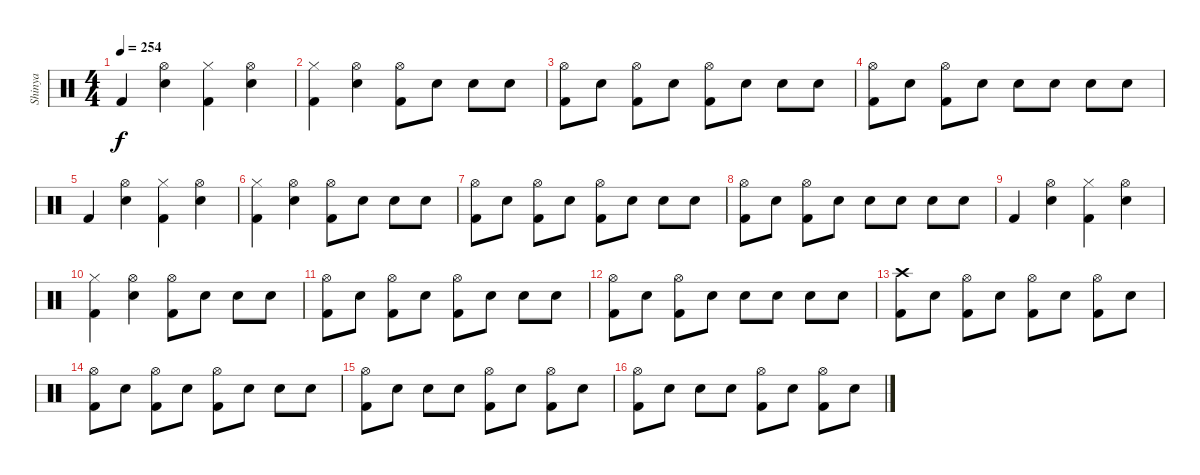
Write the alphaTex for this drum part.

\track ("Shinya" "Shinya") {instrument percussion}
\staff {score}
\articulation defaults
\ts (4 4)
\tempo 254
\clef neutral
\ks c "Kick (hit) 2".4{dy f}
("Hi-Hat (open)" "Electric Snare (hit)").4 ("Kick (hit) 2" "Hi-Hat (closed)").4 ("Hi-Hat (open)" "Electric Snare (hit)").4 |
("Kick (hit) 2" "Hi-Hat (closed)").4 ("Electric Snare (hit)" "Hi-Hat (open)").4 ("Kick (hit) 2" "Hi-Hat (open)").8 "Electric Snare (hit)".8 "Electric Snare (hit)".8 "Electric Snare (hit)".8 |
("Kick (hit) 2" "Hi-Hat (open)").8 "Electric Snare (hit)".8 ("Kick (hit) 2" "Hi-Hat (open)").8 "Electric Snare (hit)".8 ("Kick (hit) 2" "Hi-Hat (open)").8 "Electric Snare (hit)".8 "Electric Snare (hit)".8 "Electric Snare (hit)".8 |
("Kick (hit) 2" "Hi-Hat (open)").8 "Electric Snare (hit)".8 ("Kick (hit) 2" "Hi-Hat (open)").8 "Electric Snare (hit)".8 "Electric Snare (hit)".8 "Electric Snare (hit)".8 "Electric Snare (hit)".8 "Electric Snare (hit)".8 |
"Kick (hit) 2".4 ("Hi-Hat (open)" "Electric Snare (hit)").4 ("Kick (hit) 2" "Hi-Hat (closed)").4 ("Hi-Hat (open)" "Electric Snare (hit)").4 |
("Kick (hit) 2" "Hi-Hat (closed)").4 ("Electric Snare (hit)" "Hi-Hat (open)").4 ("Kick (hit) 2" "Hi-Hat (open)").8 "Electric Snare (hit)".8 "Electric Snare (hit)".8 "Electric Snare (hit)".8 |
("Kick (hit) 2" "Hi-Hat (open)").8 "Electric Snare (hit)".8 ("Kick (hit) 2" "Hi-Hat (open)").8 "Electric Snare (hit)".8 ("Kick (hit) 2" "Hi-Hat (open)").8 "Electric Snare (hit)".8 "Electric Snare (hit)".8 "Electric Snare (hit)".8 |
("Kick (hit) 2" "Hi-Hat (open)").8 "Electric Snare (hit)".8 ("Kick (hit) 2" "Hi-Hat (open)").8 "Electric Snare (hit)".8 "Electric Snare (hit)".8 "Electric Snare (hit)".8 "Electric Snare (hit)".8 "Electric Snare (hit)".8 |
"Kick (hit) 2".4 ("Hi-Hat (open)" "Electric Snare (hit)").4 ("Kick (hit) 2" "Hi-Hat (closed)").4 ("Hi-Hat (open)" "Electric Snare (hit)").4 |
("Kick (hit) 2" "Hi-Hat (closed)").4 ("Electric Snare (hit)" "Hi-Hat (open)").4 ("Kick (hit) 2" "Hi-Hat (open)").8 "Electric Snare (hit)".8 "Electric Snare (hit)".8 "Electric Snare (hit)".8 |
("Kick (hit) 2" "Hi-Hat (open)").8 "Electric Snare (hit)".8 ("Kick (hit) 2" "Hi-Hat (open)").8 "Electric Snare (hit)".8 ("Kick (hit) 2" "Hi-Hat (open)").8 "Electric Snare (hit)".8 "Electric Snare (hit)".8 "Electric Snare (hit)".8 |
("Kick (hit) 2" "Hi-Hat (open)").8 "Electric Snare (hit)".8 ("Kick (hit) 2" "Hi-Hat (open)").8 "Electric Snare (hit)".8 "Electric Snare (hit)".8 "Electric Snare (hit)".8 "Electric Snare (hit)".8 "Electric Snare (hit)".8 |
("Crash high (hit)" "Kick (hit) 2").8 "Electric Snare (hit)".8 ("Hi-Hat (open)" "Kick (hit) 2").8 "Electric Snare (hit)".8 ("Hi-Hat (open)" "Kick (hit) 2").8 "Electric Snare (hit)".8 ("Hi-Hat (open)" "Kick (hit) 2").8 "Electric Snare (hit)".8 |
("Hi-Hat (open)" "Kick (hit) 2").8 "Electric Snare (hit)".8 ("Hi-Hat (open)" "Kick (hit) 2").8 "Electric Snare (hit)".8 ("Hi-Hat (open)" "Kick (hit) 2").8 "Electric Snare (hit)".8 "Electric Snare (hit)".8 "Electric Snare (hit)".8 |
("Hi-Hat (open)" "Kick (hit) 2").8 "Electric Snare (hit)".8 "Electric Snare (hit)".8 "Electric Snare (hit)".8 ("Hi-Hat (open)" "Kick (hit) 2").8 "Electric Snare (hit)".8 ("Hi-Hat (open)" "Kick (hit) 2").8 "Electric Snare (hit)".8 |
("Hi-Hat (open)" "Kick (hit) 2").8 "Electric Snare (hit)".8 "Electric Snare (hit)".8 "Electric Snare (hit)".8 ("Hi-Hat (open)" "Kick (hit) 2").8 "Electric Snare (hit)".8 ("Hi-Hat (open)" "Kick (hit) 2").8 "Electric Snare (hit)".8
